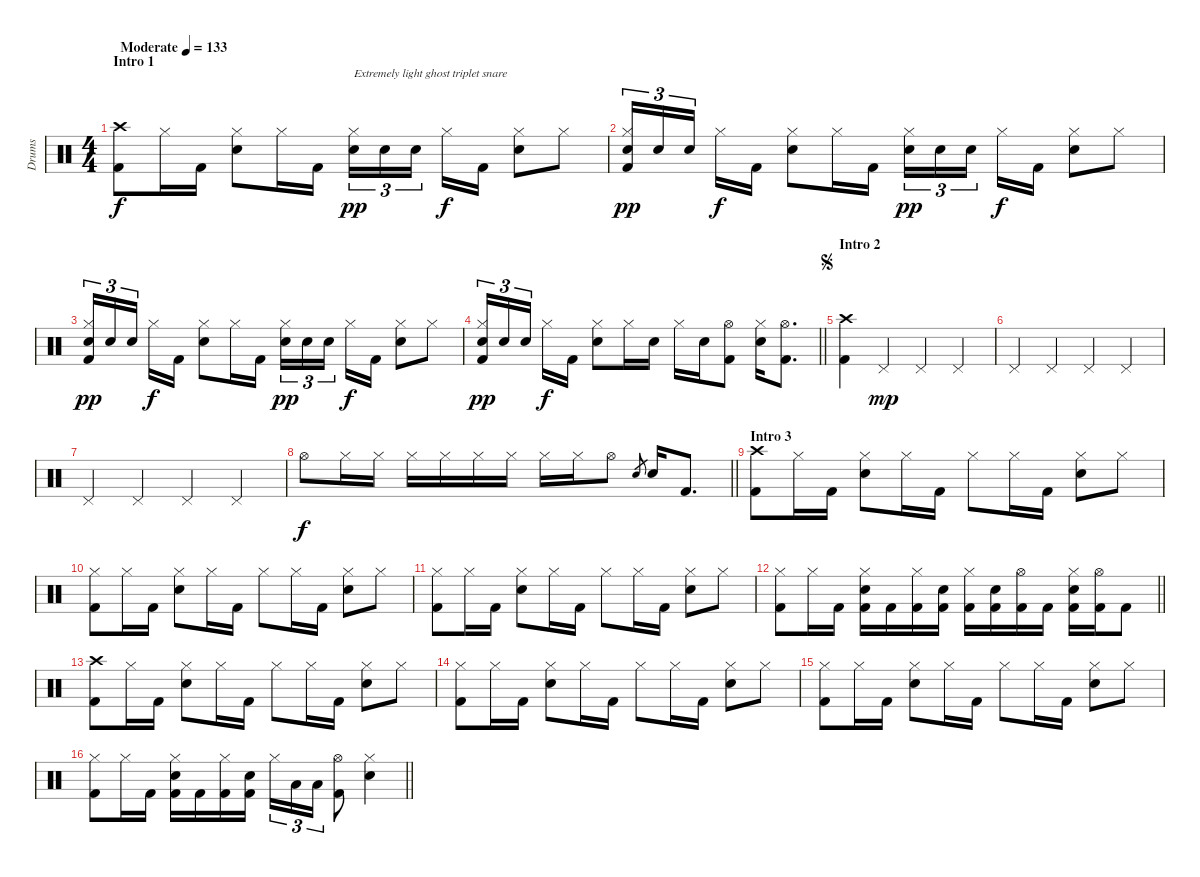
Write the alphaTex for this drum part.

\track ("Drums" "Drums") {instrument percussion}
\staff {score}
\articulation defaults
\ts (4 4)
\section ("" "Intro 1")
\tempo (133 "Moderate")
\clef neutral
\ks c
("Crash high (hit)" "Kick (hit) 2").8{dy f} "Hi-Hat (closed)".16 "Kick (hit) 2".16 ("Hi-Hat (closed)" "Electric Snare (hit)").8 "Hi-Hat (closed)".16 "Kick (hit) 2".16 ("Hi-Hat (closed)" "Electric Snare (hit)").16{tu (3 2) txt "Extremely light ghost triplet snare" dy pp} "Electric Snare (hit)".16{tu (3 2)} "Electric Snare (hit)".16{tu (3 2) beam splitsecondary} "Hi-Hat (closed)".16{dy f} "Kick (hit) 2".16 ("Hi-Hat (closed)" "Electric Snare (hit)").8 "Hi-Hat (closed)".8 |
("Hi-Hat (closed)" "Electric Snare (hit)" "Kick (hit) 2").16{tu (3 2) dy pp} "Electric Snare (hit)".16{tu (3 2)} "Electric Snare (hit)".16{tu (3 2) beam splitsecondary} "Hi-Hat (closed)".16{dy f} "Kick (hit) 2".16 ("Hi-Hat (closed)" "Electric Snare (hit)").8 "Hi-Hat (closed)".16 "Kick (hit) 2".16 ("Hi-Hat (closed)" "Electric Snare (hit)").16{tu (3 2) dy pp} "Electric Snare (hit)".16{tu (3 2)} "Electric Snare (hit)".16{tu (3 2) beam splitsecondary} "Hi-Hat (closed)".16{dy f} "Kick (hit) 2".16 ("Hi-Hat (closed)" "Electric Snare (hit)").8 "Hi-Hat (closed)".8 |
("Hi-Hat (closed)" "Electric Snare (hit)" "Kick (hit) 2").16{tu (3 2) dy pp} "Electric Snare (hit)".16{tu (3 2)} "Electric Snare (hit)".16{tu (3 2) beam splitsecondary} "Hi-Hat (closed)".16{dy f} "Kick (hit) 2".16 ("Hi-Hat (closed)" "Electric Snare (hit)").8 "Hi-Hat (closed)".16 "Kick (hit) 2".16 ("Hi-Hat (closed)" "Electric Snare (hit)").16{tu (3 2) dy pp} "Electric Snare (hit)".16{tu (3 2)} "Electric Snare (hit)".16{tu (3 2) beam splitsecondary} "Hi-Hat (closed)".16{dy f} "Kick (hit) 2".16 ("Hi-Hat (closed)" "Electric Snare (hit)").8 "Hi-Hat (closed)".8 |
\barLineRight lightlight
("Hi-Hat (closed)" "Electric Snare (hit)" "Kick (hit) 2").16{tu (3 2) dy pp} "Electric Snare (hit)".16{tu (3 2)} "Electric Snare (hit)".16{tu (3 2) beam splitsecondary} "Hi-Hat (closed)".16{dy f} "Kick (hit) 2".16 ("Hi-Hat (closed)" "Electric Snare (hit)").8 "Hi-Hat (closed)".16 "Electric Snare (hit)".16 "Hi-Hat (closed)".16 "Electric Snare (hit)".16 ("Hi-Hat (open)" "Kick (hit) 2").8 ("Hi-Hat (closed)" "Electric Snare (hit)").16 ("Hi-Hat (open)" "Kick (hit) 2").8{d} |
\section ("" "Intro 2")
\jump segno
("Crash high (hit)" "Kick (hit) 2").4 "Pedal Hi-Hat (hit)".4{dy mp} "Pedal Hi-Hat (hit)".4 "Pedal Hi-Hat (hit)".4 |
"Pedal Hi-Hat (hit)".4 "Pedal Hi-Hat (hit)".4 "Pedal Hi-Hat (hit)".4 "Pedal Hi-Hat (hit)".4 |
"Pedal Hi-Hat (hit)".4 "Pedal Hi-Hat (hit)".4 "Pedal Hi-Hat (hit)".4 "Pedal Hi-Hat (hit)".4 |
\barLineRight lightlight "Hi-Hat (open)".8{dy f} "Hi-Hat (closed)".16 "Hi-Hat (closed)".16 "Hi-Hat (closed)".16 "Hi-Hat (closed)".16 "Hi-Hat (closed)".16 "Hi-Hat (closed)".16 "Hi-Hat (closed)".16 "Hi-Hat (closed)".16 "Hi-Hat (open)".8 "Snare (hit) 2".8{gr} "Snare (hit) 2".16 "Kick (hit) 2".8{d}
|
\section ("" "Intro 3")
("Crash high (hit)" "Kick (hit) 2").8 "Hi-Hat (closed)".16 "Kick (hit) 2".16 ("Hi-Hat (closed)" "Electric Snare (hit)").8 "Hi-Hat (closed)".16 "Kick (hit) 2".16 "Hi-Hat (closed)".8 "Hi-Hat (closed)".16 "Kick (hit) 2".16 ("Hi-Hat (closed)" "Electric Snare (hit)").8 "Hi-Hat (closed)".8 |
("Hi-Hat (closed)" "Kick (hit) 2").8 "Hi-Hat (closed)".16 "Kick (hit) 2".16 ("Hi-Hat (closed)" "Electric Snare (hit)").8 "Hi-Hat (closed)".16 "Kick (hit) 2".16 "Hi-Hat (closed)".8 "Hi-Hat (closed)".16 "Kick (hit) 2".16 ("Hi-Hat (closed)" "Electric Snare (hit)").8 "Hi-Hat (closed)".8 |
("Hi-Hat (closed)" "Kick (hit) 2").8 "Hi-Hat (closed)".16 "Kick (hit) 2".16 ("Hi-Hat (closed)" "Electric Snare (hit)").8 "Hi-Hat (closed)".16 "Kick (hit) 2".16 "Hi-Hat (closed)".8 "Hi-Hat (closed)".16 "Kick (hit) 2".16 ("Hi-Hat (closed)" "Electric Snare (hit)").8 "Hi-Hat (closed)".8 |
\barLineRight lightlight
("Hi-Hat (closed)" "Kick (hit) 2").8 "Hi-Hat (closed)".16 "Kick (hit) 2".16 ("Hi-Hat (closed)" "Electric Snare (hit)" "Kick (hit) 2").16 "Kick (hit) 2".16 ("Hi-Hat (closed)" "Kick (hit) 2").16 ("Electric Snare (hit)" "Kick (hit) 2").16 ("Hi-Hat (closed)" "Kick (hit) 2").16 ("Electric Snare (hit)" "Kick (hit) 2").16 ("Hi-Hat (open)" "Kick (hit) 2").16 "Kick (hit) 2".16 ("Hi-Hat (closed)" "Electric Snare (hit)" "Kick (hit) 2").16 ("Hi-Hat (open)" "Kick (hit) 2").16 "Kick (hit) 2".8 |
("Crash high (hit)" "Kick (hit) 2").8 "Hi-Hat (closed)".16 "Kick (hit) 2".16 ("Hi-Hat (closed)" "Electric Snare (hit)").8 "Hi-Hat (closed)".16 "Kick (hit) 2".16 "Hi-Hat (closed)".8 "Hi-Hat (closed)".16 "Kick (hit) 2".16 ("Hi-Hat (closed)" "Electric Snare (hit)").8 "Hi-Hat (closed)".8 |
("Hi-Hat (closed)" "Kick (hit) 2").8 "Hi-Hat (closed)".16 "Kick (hit) 2".16 ("Hi-Hat (closed)" "Electric Snare (hit)").8 "Hi-Hat (closed)".16 "Kick (hit) 2".16 "Hi-Hat (closed)".8 "Hi-Hat (closed)".16 "Kick (hit) 2".16 ("Hi-Hat (closed)" "Electric Snare (hit)").8 "Hi-Hat (closed)".8 |
("Hi-Hat (closed)" "Kick (hit) 2").8 "Hi-Hat (closed)".16 "Kick (hit) 2".16 ("Hi-Hat (closed)" "Electric Snare (hit)").8 "Hi-Hat (closed)".16 "Kick (hit) 2".16 "Hi-Hat (closed)".8 "Hi-Hat (closed)".16 "Kick (hit) 2".16 ("Hi-Hat (closed)" "Electric Snare (hit)").8 "Hi-Hat (closed)".8 |
\barLineRight lightlight
("Hi-Hat (closed)" "Kick (hit) 2").8 "Hi-Hat (closed)".16 "Kick (hit) 2".16 ("Hi-Hat (closed)" "Electric Snare (hit)" "Kick (hit) 2").16 "Kick (hit) 2".16 ("Hi-Hat (closed)" "Kick (hit) 2").16 ("Electric Snare (hit)" "Kick (hit) 2").16 "Hi-Hat (closed)".16{tu (3 2)} "Low Tom (hit)".16{tu (3 2)} "Low Tom (hit)".16{tu (3 2)} ("Hi-Hat (open)" "Kick (hit) 2").8 ("Hi-Hat (closed)" "Electric Snare (hit)").4
